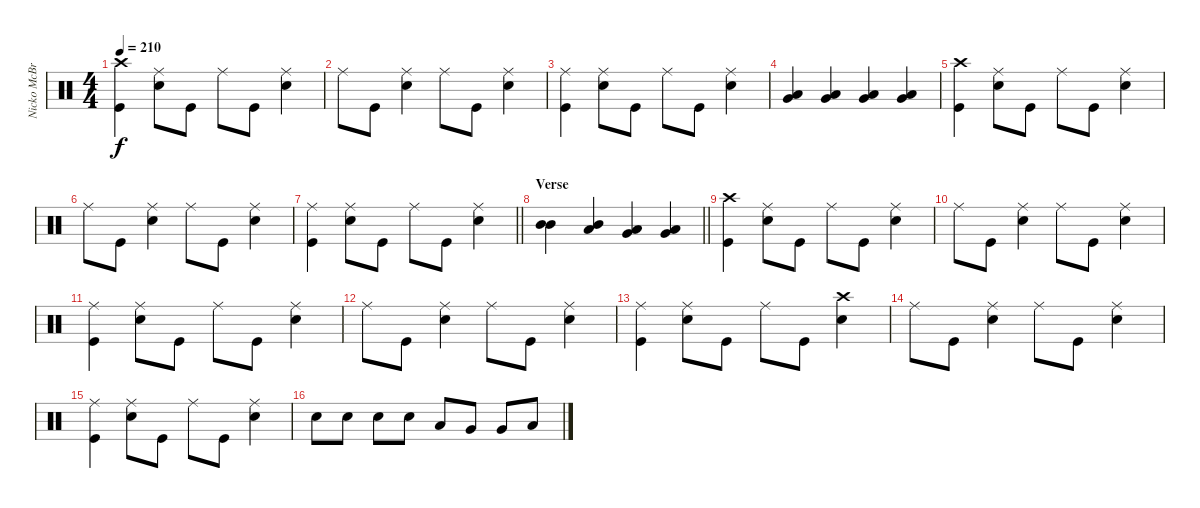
\track ("Nicko McBrain" "Nicko McBr") {instrument percussion}
\staff {score}
\articulation defaults
\ts (4 4)
\tempo 210
\clef neutral
\ks c
("Crash high (hit)" "Kick (hit)").4{dy f} ("Ride (middle)" "Snare (hit) 2").8 "Kick (hit)".8 "Ride (middle)".8 "Kick (hit)".8 ("Ride (middle)" "Snare (hit) 2").4 |
"Ride (middle)".8 "Kick (hit)".8 ("Ride (middle)" "Snare (hit) 2").4 "Ride (middle)".8 "Kick (hit)".8 ("Ride (middle)" "Snare (hit) 2").4 |
("Ride (middle)" "Kick (hit)").4 ("Ride (middle)" "Snare (hit) 2").8 "Kick (hit)".8 "Ride (middle)".8 "Kick (hit)".8 ("Ride (middle)" "Snare (hit) 2").4 |
("Very Low Tom (hit)" "Low Floor Tom (hit)").4 ("Very Low Tom (hit)" "Low Floor Tom (hit)").4 ("Low Tom (hit)" "Very Low Tom (hit)").4 ("Low Tom (hit)" "Very Low Tom (hit)").4 |
("Crash high (hit)" "Kick (hit)").4 ("Ride (middle)" "Snare (hit) 2").8 "Kick (hit)".8 "Ride (middle)".8 "Kick (hit)".8 ("Ride (middle)" "Snare (hit) 2").4 |
"Ride (middle)".8 "Kick (hit)".8 ("Ride (middle)" "Snare (hit) 2").4 "Ride (middle)".8 "Kick (hit)".8 ("Ride (middle)" "Snare (hit) 2").4 |
\barLineRight lightlight
("Ride (middle)" "Kick (hit)").4 ("Ride (middle)" "Snare (hit) 2").8 "Kick (hit)".8 "Ride (middle)".8 "Kick (hit)".8 ("Ride (middle)" "Snare (hit) 2").4 |
\section ("" "Verse")
\barLineRight lightlight
("Mid Tom (hit)" "Mid Tom (hit)").4 ("Mid Tom (hit)" "Low Tom (hit)").4 ("Low Tom (hit)" "Very Low Tom (hit)").4 ("Very Low Tom (hit)" "Low Floor Tom (hit)").4 |
("Crash high (hit)" "Kick (hit)").4 ("Ride (middle)" "Snare (hit) 2").8 "Kick (hit)".8 "Ride (middle)".8 "Kick (hit)".8 ("Ride (middle)" "Snare (hit) 2").4 |
"Ride (middle)".8 "Kick (hit)".8 ("Ride (middle)" "Snare (hit) 2").4 "Ride (middle)".8 "Kick (hit)".8 ("Ride (middle)" "Snare (hit) 2").4 |
("Ride (middle)" "Kick (hit)").4 ("Ride (middle)" "Snare (hit) 2").8 "Kick (hit)".8 "Ride (middle)".8 "Kick (hit)".8 ("Ride (middle)" "Snare (hit) 2").4 |
"Ride (middle)".8 "Kick (hit)".8 ("Ride (middle)" "Snare (hit) 2").4 "Ride (middle)".8 "Kick (hit)".8 ("Ride (middle)" "Snare (hit) 2").4 |
("Ride (middle)" "Kick (hit)").4 ("Ride (middle)" "Snare (hit) 2").8 "Kick (hit)".8 "Ride (middle)".8 "Kick (hit)".8 ("Crash high (hit)" "Snare (hit) 2").4 |
"Ride (middle)".8 "Kick (hit)".8 ("Ride (middle)" "Snare (hit) 2").4 "Ride (middle)".8 "Kick (hit)".8 ("Ride (middle)" "Snare (hit) 2").4 |
("Ride (middle)" "Kick (hit)").4 ("Ride (middle)" "Snare (hit) 2").8 "Kick (hit)".8 "Ride (middle)".8 "Kick (hit)".8 ("Ride (middle)" "Snare (hit) 2").4 |
"Snare (hit) 2".8 "Snare (hit) 2".8 "Snare (hit) 2".8 "Snare (hit) 2".8 "Low Tom (hit)".8 "Very Low Tom (hit)".8 "Very Low Tom (hit)".8 "Low Floor Tom (hit)".8
